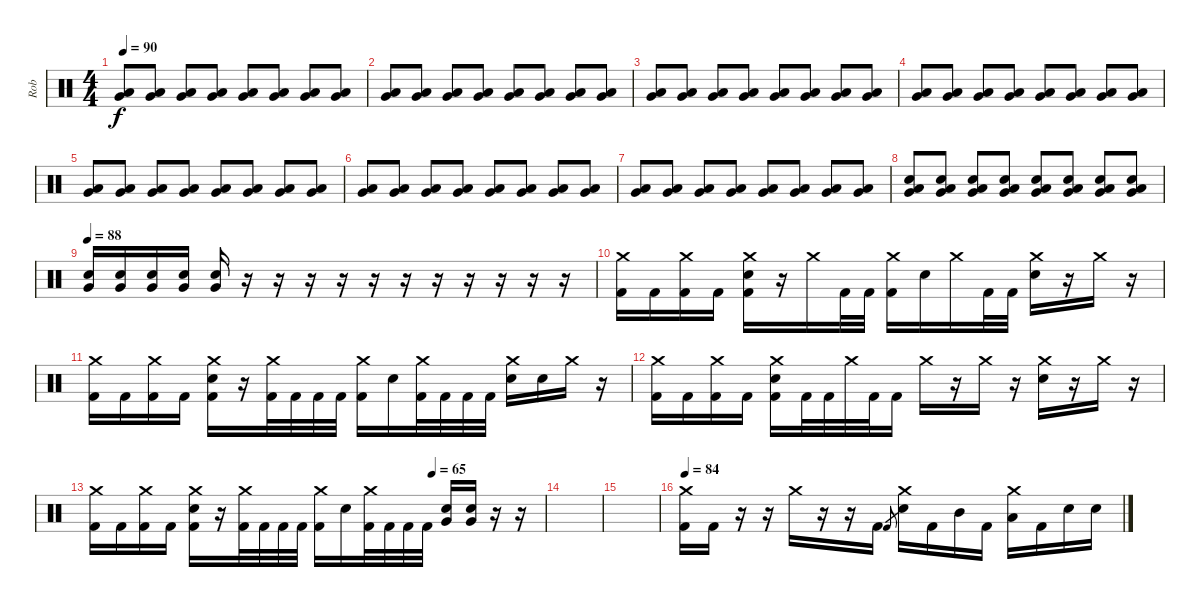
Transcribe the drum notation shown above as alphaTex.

\track ("Rob" "Rob") {instrument percussion}
\staff {score}
\articulation defaults
\ts (4 4)
\tempo 90
\clef neutral
\ks c
("Very Low Tom (hit)" "Low Tom (hit)").8{dy f} ("Very Low Tom (hit)" "Low Tom (hit)").8 ("Very Low Tom (hit)" "Low Tom (hit)").8 ("Very Low Tom (hit)" "Low Tom (hit)").8 ("Very Low Tom (hit)" "Low Tom (hit)").8 ("Very Low Tom (hit)" "Low Tom (hit)").8 ("Very Low Tom (hit)" "Low Tom (hit)").8 ("Very Low Tom (hit)" "Low Tom (hit)").8 |
("Very Low Tom (hit)" "Low Tom (hit)").8 ("Very Low Tom (hit)" "Low Tom (hit)").8 ("Very Low Tom (hit)" "Low Tom (hit)").8 ("Very Low Tom (hit)" "Low Tom (hit)").8 ("Very Low Tom (hit)" "Low Tom (hit)").8 ("Very Low Tom (hit)" "Low Tom (hit)").8 ("Very Low Tom (hit)" "Low Tom (hit)").8 ("Very Low Tom (hit)" "Low Tom (hit)").8 |
("Very Low Tom (hit)" "Low Tom (hit)").8 ("Very Low Tom (hit)" "Low Tom (hit)").8 ("Very Low Tom (hit)" "Low Tom (hit)").8 ("Very Low Tom (hit)" "Low Tom (hit)").8 ("Very Low Tom (hit)" "Low Tom (hit)").8 ("Very Low Tom (hit)" "Low Tom (hit)").8 ("Very Low Tom (hit)" "Low Tom (hit)").8 ("Very Low Tom (hit)" "Low Tom (hit)").8 |
("Very Low Tom (hit)" "Low Tom (hit)").8 ("Very Low Tom (hit)" "Low Tom (hit)").8 ("Very Low Tom (hit)" "Low Tom (hit)").8 ("Very Low Tom (hit)" "Low Tom (hit)").8 ("Very Low Tom (hit)" "Low Tom (hit)").8 ("Very Low Tom (hit)" "Low Tom (hit)").8 ("Very Low Tom (hit)" "Low Tom (hit)").8 ("Very Low Tom (hit)" "Low Tom (hit)").8 |
("Very Low Tom (hit)" "Low Tom (hit)").8 ("Very Low Tom (hit)" "Low Tom (hit)").8 ("Very Low Tom (hit)" "Low Tom (hit)").8 ("Very Low Tom (hit)" "Low Tom (hit)").8 ("Very Low Tom (hit)" "Low Tom (hit)").8 ("Very Low Tom (hit)" "Low Tom (hit)").8 ("Very Low Tom (hit)" "Low Tom (hit)").8 ("Very Low Tom (hit)" "Low Tom (hit)").8 |
("Very Low Tom (hit)" "Low Tom (hit)").8 ("Very Low Tom (hit)" "Low Tom (hit)").8 ("Very Low Tom (hit)" "Low Tom (hit)").8 ("Very Low Tom (hit)" "Low Tom (hit)").8 ("Very Low Tom (hit)" "Low Tom (hit)").8 ("Very Low Tom (hit)" "Low Tom (hit)").8 ("Very Low Tom (hit)" "Low Tom (hit)").8 ("Very Low Tom (hit)" "Low Tom (hit)").8 |
("Very Low Tom (hit)" "Low Tom (hit)").8 ("Very Low Tom (hit)" "Low Tom (hit)").8 ("Very Low Tom (hit)" "Low Tom (hit)").8 ("Very Low Tom (hit)" "Low Tom (hit)").8 ("Very Low Tom (hit)" "Low Tom (hit)").8 ("Very Low Tom (hit)" "Low Tom (hit)").8 ("Very Low Tom (hit)" "Low Tom (hit)").8 ("Very Low Tom (hit)" "Low Tom (hit)").8 |
("Very Low Tom (hit)" "Low Tom (hit)" "Electric Snare (hit)").8 ("Very Low Tom (hit)" "Low Tom (hit)" "Electric Snare (hit)").8 ("Very Low Tom (hit)" "Low Tom (hit)" "Electric Snare (hit)").8 ("Very Low Tom (hit)" "Low Tom (hit)" "Electric Snare (hit)").8 ("Very Low Tom (hit)" "Low Tom (hit)" "Electric Snare (hit)").8 ("Very Low Tom (hit)" "Low Tom (hit)" "Electric Snare (hit)").8 ("Very Low Tom (hit)" "Low Tom (hit)" "Electric Snare (hit)").8 ("Very Low Tom (hit)" "Low Tom (hit)" "Electric Snare (hit)").8 |
\tempo 88
("Electric Snare (hit)" "Very Low Tom (hit)").16 ("Electric Snare (hit)" "Very Low Tom (hit)").16 ("Electric Snare (hit)" "Very Low Tom (hit)").16 ("Electric Snare (hit)" "Very Low Tom (hit)").16 ("Electric Snare (hit)" "Very Low Tom (hit)").16 r.16 r.16 r.16 r.16 r.16 r.16 r.16 r.16 r.16 r.16 r.16 |
("Crash medium (hit)" "Kick (hit) 2").16 "Kick (hit) 2".16 ("Crash medium (hit)" "Kick (hit) 2").16 "Kick (hit) 2".16 ("Crash medium (hit)" "Electric Snare (hit)" "Kick (hit) 2").16 r.16 "Crash medium (hit)".16 "Kick (hit) 2".32 "Kick (hit) 2".32 ("Crash medium (hit)" "Kick (hit) 2").16 "Electric Snare (hit)".16 "Crash medium (hit)".16 "Kick (hit) 2".32 "Kick (hit) 2".32 ("Crash medium (hit)" "Electric Snare (hit)").16 r.16 "Crash medium (hit)".16 r.16 |
("Crash medium (hit)" "Kick (hit) 2").16 "Kick (hit) 2".16 ("Crash medium (hit)" "Kick (hit) 2").16 "Kick (hit) 2".16 ("Crash medium (hit)" "Electric Snare (hit)" "Kick (hit) 2").16 r.16 ("Crash medium (hit)" "Kick (hit) 2").32 "Kick (hit) 2".32 "Kick (hit) 2".32 "Kick (hit) 2".32 ("Crash medium (hit)" "Kick (hit) 2").16 "Electric Snare (hit)".16 ("Crash medium (hit)" "Kick (hit) 2").32 "Kick (hit) 2".32 "Kick (hit) 2".32 "Kick (hit) 2".32 ("Crash medium (hit)" "Electric Snare (hit)").16 "Electric Snare (hit)".16 "Crash medium (hit)".16 r.16 |
("Crash medium (hit)" "Kick (hit) 2").16 "Kick (hit) 2".16 ("Crash medium (hit)" "Kick (hit) 2").16 "Kick (hit) 2".16 ("Crash medium (hit)" "Electric Snare (hit)" "Kick (hit) 2").16 "Kick (hit) 2".32 "Kick (hit) 2".32 "Crash medium (hit)".32 "Kick (hit) 2".32 "Kick (hit) 2".16 "Crash medium (hit)".16 r.16 "Crash medium (hit)".16 r.16 ("Crash medium (hit)" "Electric Snare (hit)").16 r.16 "Crash medium (hit)".16 r.16 |
\tempo (65 0.75)
("Crash medium (hit)" "Kick (hit) 2").16 "Kick (hit) 2".16 ("Crash medium (hit)" "Kick (hit) 2").16 "Kick (hit) 2".16 ("Crash medium (hit)" "Electric Snare (hit)" "Kick (hit) 2").16 r.16 ("Crash medium (hit)" "Kick (hit) 2").32 "Kick (hit) 2".32 "Kick (hit) 2".32 "Kick (hit) 2".32 ("Crash medium (hit)" "Kick (hit) 2").16 "Electric Snare (hit)".16 ("Crash medium (hit)" "Kick (hit) 2").32 "Kick (hit) 2".32 "Kick (hit) 2".32 "Kick (hit) 2".32 ("Very Low Tom (hit)" "Electric Snare (hit)").16 ("Very Low Tom (hit)" "Electric Snare (hit)").16 r.16 r.16 |
|
|
\tempo 84
("Crash medium (hit)" "Kick (hit) 2").16 "Kick (hit) 2".16 r.16 r.16 "Crash medium (hit)".16 r.16 r.16 "Kick (hit) 2".16 "Kick (hit) 2".8{gr} ("Crash medium (hit)" "Electric Snare (hit)").16 "Kick (hit) 2".16 "Mid Tom (hit)".16 "Kick (hit) 2".16 ("Crash medium (hit)" "Low Tom (hit)").16 "Kick (hit) 2".16 "Electric Snare (hit)".16 "Electric Snare (hit)".16
